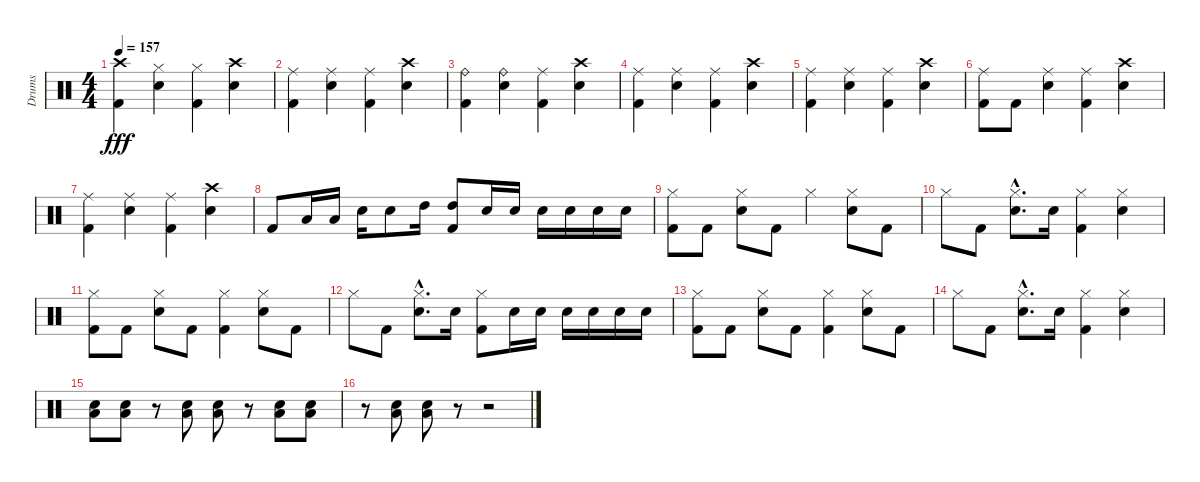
\track ("Drums" "Drums") {instrument percussion}
\staff {score}
\articulation defaults
\ts (4 4)
\tempo 157
\clef neutral
\ks c
("Crash high (hit)" "Kick (hit) 2").4{dy fff} ("Hi-Hat (closed)" "Snare (hit) 2").4 ("Hi-Hat (closed)" "Kick (hit) 2").4 ("Crash high (hit)" "Snare (hit) 2").4 |
("Ride (middle)" "Kick (hit) 2").4 ("Ride (middle)" "Snare (hit) 2").4 ("Ride (middle)" "Kick (hit) 2").4 ("Crash high (hit)" "Snare (hit) 2").4 |
("Ride (bell)" "Kick (hit) 2").4 ("Ride (bell)" "Snare (hit) 2").4 ("Ride (middle)" "Kick (hit) 2").4 ("Crash high (hit)" "Snare (hit) 2").4 |
("Ride (middle)" "Kick (hit) 2").4 ("Ride (middle)" "Snare (hit) 2").4 ("Ride (middle)" "Kick (hit) 2").4 ("Crash high (hit)" "Snare (hit) 2").4 |
("Ride (middle)" "Kick (hit) 2").4 ("Ride (middle)" "Snare (hit) 2").4 ("Ride (middle)" "Kick (hit) 2").4 ("Crash high (hit)" "Snare (hit) 2").4 |
("Ride (middle)" "Kick (hit) 2").8 "Kick (hit) 2".8 ("Ride (middle)" "Snare (hit) 2").4 ("Ride (middle)" "Kick (hit) 2").4 ("Crash high (hit)" "Snare (hit) 2").4 |
("Ride (middle)" "Kick (hit) 2").4 ("Ride (middle)" "Snare (hit) 2").4 ("Ride (middle)" "Kick (hit) 2").4 ("Crash high (hit)" "Snare (hit) 2").4 |
"Kick (hit) 2".8 "Low Floor Tom (hit)".16 "Low Floor Tom (hit)".16 "Snare (hit) 2".16 "Snare (hit) 2".8 "High Tom (hit)".16 ("High Tom (hit)" "Kick (hit) 2").8 "Snare (hit) 2".16 "Snare (hit) 2".16 "Snare (hit) 2".16 "Snare (hit) 2".16 "Snare (hit) 2".16 "Snare (hit) 2".16 |
("Hi-Hat (closed)" "Kick (hit) 2").8 "Kick (hit) 2".8 ("Hi-Hat (closed)" "Snare (hit) 2").8 "Kick (hit) 2".8 "Hi-Hat (closed)".4 ("Hi-Hat (closed)" "Snare (hit) 2").8 "Kick (hit) 2".8 |
"Hi-Hat (closed)".8 "Kick (hit) 2".8 ("Hi-Hat (closed)"{hac} "Snare (hit) 2"{hac}).8{d} "Snare (hit) 2".16 ("Hi-Hat (closed)" "Kick (hit) 2").4 ("Hi-Hat (closed)" "Snare (hit) 2").4 |
("Hi-Hat (closed)" "Kick (hit) 2").8 "Kick (hit) 2".8 ("Hi-Hat (closed)" "Snare (hit) 2").8 "Kick (hit) 2".8 ("Hi-Hat (closed)" "Kick (hit) 2").4 ("Hi-Hat (closed)" "Snare (hit) 2").8 "Kick (hit) 2".8 |
"Hi-Hat (closed)".8 "Kick (hit) 2".8 ("Hi-Hat (closed)"{hac} "Snare (hit) 2"{hac}).8{d} "Snare (hit) 2".16 ("Hi-Hat (closed)" "Kick (hit) 2").8 "Snare (hit) 2".16 "Snare (hit) 2".16 "Snare (hit) 2".16 "Snare (hit) 2".16 "Snare (hit) 2".16 "Snare (hit) 2".16 |
("Hi-Hat (closed)" "Kick (hit) 2").8 "Kick (hit) 2".8 ("Hi-Hat (closed)" "Snare (hit) 2").8 "Kick (hit) 2".8 ("Hi-Hat (closed)" "Kick (hit) 2").4 ("Hi-Hat (closed)" "Snare (hit) 2").8 "Kick (hit) 2".8 |
"Hi-Hat (closed)".8 "Kick (hit) 2".8 ("Hi-Hat (closed)"{hac} "Snare (hit) 2"{hac}).8{d} "Snare (hit) 2".16 ("Hi-Hat (closed)" "Kick (hit) 2").4 ("Hi-Hat (closed)" "Snare (hit) 2").4 |
("Snare (hit) 2" "Low Floor Tom (hit)").8 ("Snare (hit) 2" "Low Floor Tom (hit)").8 r.8 ("Snare (hit) 2" "Low Floor Tom (hit)").8 ("Snare (hit) 2" "Low Floor Tom (hit)").8 r.8 ("Snare (hit) 2" "Low Floor Tom (hit)").8 ("Snare (hit) 2" "Low Floor Tom (hit)").8 |
r.8 ("Snare (hit) 2" "Low Floor Tom (hit)").8 ("Snare (hit) 2" "Low Floor Tom (hit)").8 r.8 r.2
